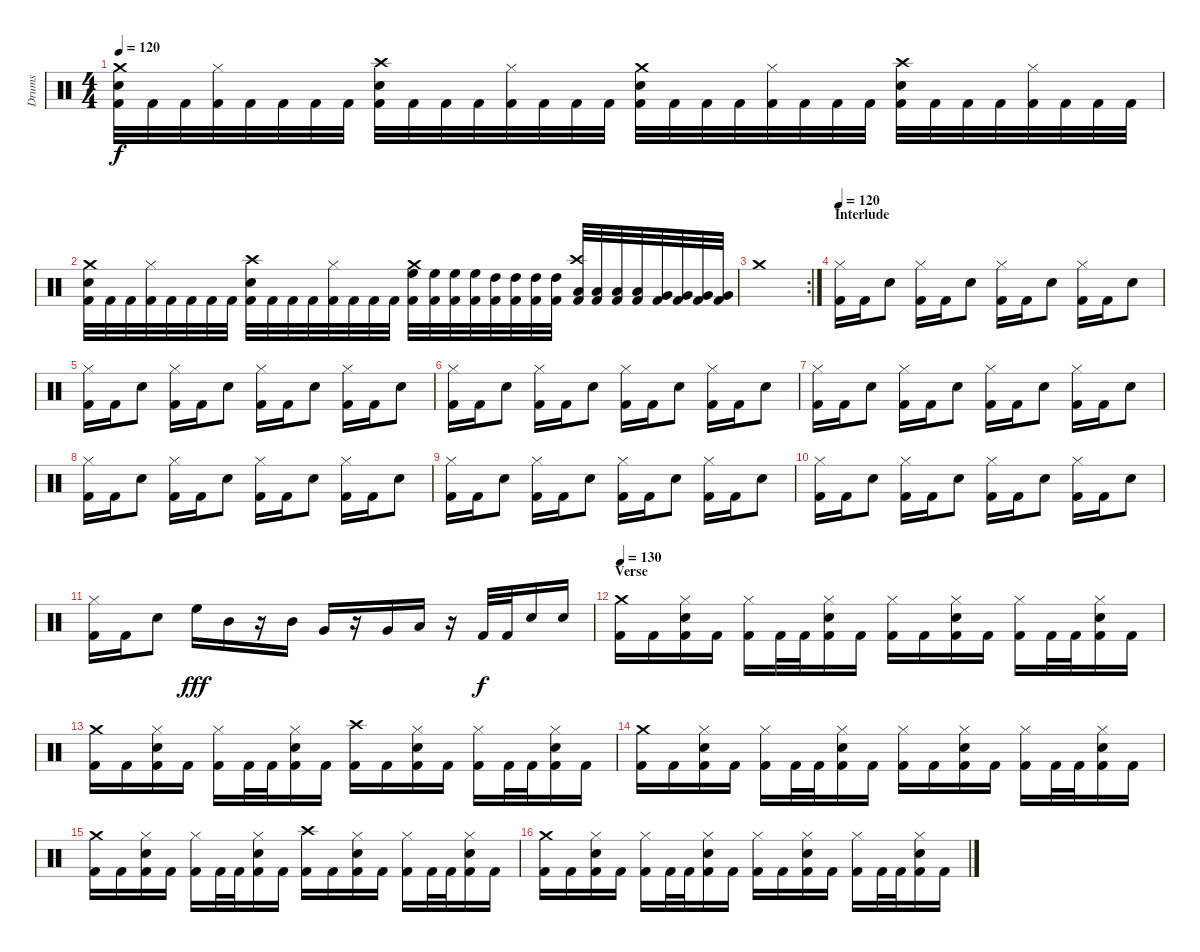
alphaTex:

\track ("Drums" "Drums") {instrument percussion}
\staff {score}
\articulation defaults
\ts (4 4)
\tempo 120
\clef neutral
\ks c
("Crash medium (hit)" "Electric Snare (hit)" "Kick (hit) 2").32{dy f} "Kick (hit) 2".32 "Kick (hit) 2".32 ("Hi-Hat (closed)" "Kick (hit) 2").32 "Kick (hit) 2".32 "Kick (hit) 2".32 "Kick (hit) 2".32 "Kick (hit) 2".32 ("Crash high (hit)" "Electric Snare (hit)" "Kick (hit) 2").32 "Kick (hit) 2".32 "Kick (hit) 2".32 "Kick (hit) 2".32 ("Hi-Hat (closed)" "Kick (hit) 2").32 "Kick (hit) 2".32 "Kick (hit) 2".32 "Kick (hit) 2".32 ("Crash medium (hit)" "Electric Snare (hit)" "Kick (hit) 2").32 "Kick (hit) 2".32 "Kick (hit) 2".32 "Kick (hit) 2".32 ("Hi-Hat (closed)" "Kick (hit) 2").32 "Kick (hit) 2".32 "Kick (hit) 2".32 "Kick (hit) 2".32 ("Crash high (hit)" "Electric Snare (hit)" "Kick (hit) 2").32 "Kick (hit) 2".32 "Kick (hit) 2".32 "Kick (hit) 2".32 ("Hi-Hat (closed)" "Kick (hit) 2").32 "Kick (hit) 2".32 "Kick (hit) 2".32 "Kick (hit) 2".32 |
("Crash medium (hit)" "Electric Snare (hit)" "Kick (hit) 2").32 "Kick (hit) 2".32 "Kick (hit) 2".32 ("Hi-Hat (closed)" "Kick (hit) 2").32 "Kick (hit) 2".32 "Kick (hit) 2".32 "Kick (hit) 2".32 "Kick (hit) 2".32 ("Crash high (hit)" "Electric Snare (hit)" "Kick (hit) 2").32 "Kick (hit) 2".32 "Kick (hit) 2".32 "Kick (hit) 2".32 ("Hi-Hat (closed)" "Kick (hit) 2").32 "Kick (hit) 2".32 "Kick (hit) 2".32 "Kick (hit) 2".32 ("Crash medium (hit)" "High Floor Tom (hit)" "Kick (hit) 2").32 ("High Floor Tom (hit)" "Kick (hit) 2").32 ("High Floor Tom (hit)" "Kick (hit) 2").32 ("High Floor Tom (hit)" "Kick (hit) 2").32 ("High Tom (hit)" "Kick (hit) 2").32 ("High Tom (hit)" "Kick (hit) 2").32 ("High Tom (hit)" "Kick (hit) 2").32 ("High Tom (hit)" "Kick (hit) 2").32 ("Crash high (hit)" "Low Tom (hit)" "Kick (hit) 2").32 ("Low Tom (hit)" "Kick (hit) 2").32 ("Low Tom (hit)" "Kick (hit) 2").32 ("Low Tom (hit)" "Kick (hit) 2").32 ("Very Low Tom (hit)" "Kick (hit) 2").32 ("Very Low Tom (hit)" "Kick (hit) 2").32 ("Very Low Tom (hit)" "Kick (hit) 2").32 ("Very Low Tom (hit)" "Kick (hit) 2").32 |
\rc 2 "Crash medium (hit)".1
|
\section ("" "Interlude")
\tempo 120
("Hi-Hat (closed)" "Kick (hit) 2").16 "Kick (hit) 2".16 "Electric Snare (hit)".8 ("Hi-Hat (closed)" "Kick (hit) 2").16 "Kick (hit) 2".16 "Electric Snare (hit)".8 ("Hi-Hat (closed)" "Kick (hit) 2").16 "Kick (hit) 2".16 "Electric Snare (hit)".8 ("Hi-Hat (closed)" "Kick (hit) 2").16 "Kick (hit) 2".16 "Electric Snare (hit)".8 |
("Hi-Hat (closed)" "Kick (hit) 2").16 "Kick (hit) 2".16 "Electric Snare (hit)".8 ("Hi-Hat (closed)" "Kick (hit) 2").16 "Kick (hit) 2".16 "Electric Snare (hit)".8 ("Hi-Hat (closed)" "Kick (hit) 2").16 "Kick (hit) 2".16 "Electric Snare (hit)".8 ("Hi-Hat (closed)" "Kick (hit) 2").16 "Kick (hit) 2".16 "Electric Snare (hit)".8 |
("Hi-Hat (closed)" "Kick (hit) 2").16 "Kick (hit) 2".16 "Electric Snare (hit)".8 ("Hi-Hat (closed)" "Kick (hit) 2").16 "Kick (hit) 2".16 "Electric Snare (hit)".8 ("Hi-Hat (closed)" "Kick (hit) 2").16 "Kick (hit) 2".16 "Electric Snare (hit)".8 ("Hi-Hat (closed)" "Kick (hit) 2").16 "Kick (hit) 2".16 "Electric Snare (hit)".8 |
("Hi-Hat (closed)" "Kick (hit) 2").16 "Kick (hit) 2".16 "Electric Snare (hit)".8 ("Hi-Hat (closed)" "Kick (hit) 2").16 "Kick (hit) 2".16 "Electric Snare (hit)".8 ("Hi-Hat (closed)" "Kick (hit) 2").16 "Kick (hit) 2".16 "Electric Snare (hit)".8 ("Hi-Hat (closed)" "Kick (hit) 2").16 "Kick (hit) 2".16 "Electric Snare (hit)".8 |
("Hi-Hat (closed)" "Kick (hit) 2").16 "Kick (hit) 2".16 "Electric Snare (hit)".8 ("Hi-Hat (closed)" "Kick (hit) 2").16 "Kick (hit) 2".16 "Electric Snare (hit)".8 ("Hi-Hat (closed)" "Kick (hit) 2").16 "Kick (hit) 2".16 "Electric Snare (hit)".8 ("Hi-Hat (closed)" "Kick (hit) 2").16 "Kick (hit) 2".16 "Electric Snare (hit)".8 |
("Hi-Hat (closed)" "Kick (hit) 2").16 "Kick (hit) 2".16 "Electric Snare (hit)".8 ("Hi-Hat (closed)" "Kick (hit) 2").16 "Kick (hit) 2".16 "Electric Snare (hit)".8 ("Hi-Hat (closed)" "Kick (hit) 2").16 "Kick (hit) 2".16 "Electric Snare (hit)".8 ("Hi-Hat (closed)" "Kick (hit) 2").16 "Kick (hit) 2".16 "Electric Snare (hit)".8 |
("Hi-Hat (closed)" "Kick (hit) 2").16 "Kick (hit) 2".16 "Electric Snare (hit)".8 ("Hi-Hat (closed)" "Kick (hit) 2").16 "Kick (hit) 2".16 "Electric Snare (hit)".8 ("Hi-Hat (closed)" "Kick (hit) 2").16 "Kick (hit) 2".16 "Electric Snare (hit)".8 ("Hi-Hat (closed)" "Kick (hit) 2").16 "Kick (hit) 2".16 "Electric Snare (hit)".8 |
("Hi-Hat (closed)" "Kick (hit) 2").16 "Kick (hit) 2".16 "Electric Snare (hit)".8 "High Floor Tom (hit)".16{dy fff} "Mid Tom (hit)".16 r.16 "Mid Tom (hit)".16 "Very Low Tom (hit)".16 r.16 "Very Low Tom (hit)".16 "Low Floor Tom (hit)".16 r.16 "Kick (hit) 2".32{dy f} "Kick (hit) 2".32 "Electric Snare (hit)".16 "Electric Snare (hit)".16 |
\section ("" "Verse ")
\tempo 130
("Crash medium (hit)" "Kick (hit) 2").16 "Kick (hit) 2".16 ("Hi-Hat (closed)" "Electric Snare (hit)" "Kick (hit) 2").16 "Kick (hit) 2".16 ("Hi-Hat (closed)" "Kick (hit) 2").16 "Kick (hit) 2".32 "Kick (hit) 2".32 ("Hi-Hat (closed)" "Electric Snare (hit)" "Kick (hit) 2").16 "Kick (hit) 2".16 ("Hi-Hat (closed)" "Kick (hit) 2").16 "Kick (hit) 2".16 ("Hi-Hat (closed)" "Electric Snare (hit)" "Kick (hit) 2").16 "Kick (hit) 2".16 ("Hi-Hat (closed)" "Kick (hit) 2").16 "Kick (hit) 2".32 "Kick (hit) 2".32 ("Hi-Hat (closed)" "Electric Snare (hit)" "Kick (hit) 2").16 "Kick (hit) 2".16 |
("Crash medium (hit)" "Kick (hit) 2").16 "Kick (hit) 2".16 ("Hi-Hat (closed)" "Electric Snare (hit)" "Kick (hit) 2").16 "Kick (hit) 2".16 ("Hi-Hat (closed)" "Kick (hit) 2").16 "Kick (hit) 2".32 "Kick (hit) 2".32 ("Hi-Hat (closed)" "Electric Snare (hit)" "Kick (hit) 2").16 "Kick (hit) 2".16 ("Crash high (hit)" "Kick (hit) 2").16 "Kick (hit) 2".16 ("Hi-Hat (closed)" "Electric Snare (hit)" "Kick (hit) 2").16 "Kick (hit) 2".16 ("Hi-Hat (closed)" "Kick (hit) 2").16 "Kick (hit) 2".32 "Kick (hit) 2".32 ("Hi-Hat (closed)" "Electric Snare (hit)" "Kick (hit) 2").16 "Kick (hit) 2".16 |
("Crash medium (hit)" "Kick (hit) 2").16 "Kick (hit) 2".16 ("Hi-Hat (closed)" "Electric Snare (hit)" "Kick (hit) 2").16 "Kick (hit) 2".16 ("Hi-Hat (closed)" "Kick (hit) 2").16 "Kick (hit) 2".32 "Kick (hit) 2".32 ("Hi-Hat (closed)" "Electric Snare (hit)" "Kick (hit) 2").16 "Kick (hit) 2".16 ("Hi-Hat (closed)" "Kick (hit) 2").16 "Kick (hit) 2".16 ("Hi-Hat (closed)" "Electric Snare (hit)" "Kick (hit) 2").16 "Kick (hit) 2".16 ("Hi-Hat (closed)" "Kick (hit) 2").16 "Kick (hit) 2".32 "Kick (hit) 2".32 ("Hi-Hat (closed)" "Electric Snare (hit)" "Kick (hit) 2").16 "Kick (hit) 2".16 |
("Crash medium (hit)" "Kick (hit) 2").16 "Kick (hit) 2".16 ("Hi-Hat (closed)" "Electric Snare (hit)" "Kick (hit) 2").16 "Kick (hit) 2".16 ("Hi-Hat (closed)" "Kick (hit) 2").16 "Kick (hit) 2".32 "Kick (hit) 2".32 ("Hi-Hat (closed)" "Electric Snare (hit)" "Kick (hit) 2").16 "Kick (hit) 2".16 ("Crash high (hit)" "Kick (hit) 2").16 "Kick (hit) 2".16 ("Hi-Hat (closed)" "Electric Snare (hit)" "Kick (hit) 2").16 "Kick (hit) 2".16 ("Hi-Hat (closed)" "Kick (hit) 2").16 "Kick (hit) 2".32 "Kick (hit) 2".32 ("Hi-Hat (closed)" "Electric Snare (hit)" "Kick (hit) 2").16 "Kick (hit) 2".16 |
("Crash medium (hit)" "Kick (hit) 2").16 "Kick (hit) 2".16 ("Hi-Hat (closed)" "Electric Snare (hit)" "Kick (hit) 2").16 "Kick (hit) 2".16 ("Hi-Hat (closed)" "Kick (hit) 2").16 "Kick (hit) 2".32 "Kick (hit) 2".32 ("Hi-Hat (closed)" "Electric Snare (hit)" "Kick (hit) 2").16 "Kick (hit) 2".16 ("Hi-Hat (closed)" "Kick (hit) 2").16 "Kick (hit) 2".16 ("Hi-Hat (closed)" "Electric Snare (hit)" "Kick (hit) 2").16 "Kick (hit) 2".16 ("Hi-Hat (closed)" "Kick (hit) 2").16 "Kick (hit) 2".32 "Kick (hit) 2".32 ("Hi-Hat (closed)" "Electric Snare (hit)" "Kick (hit) 2").16 "Kick (hit) 2".16
